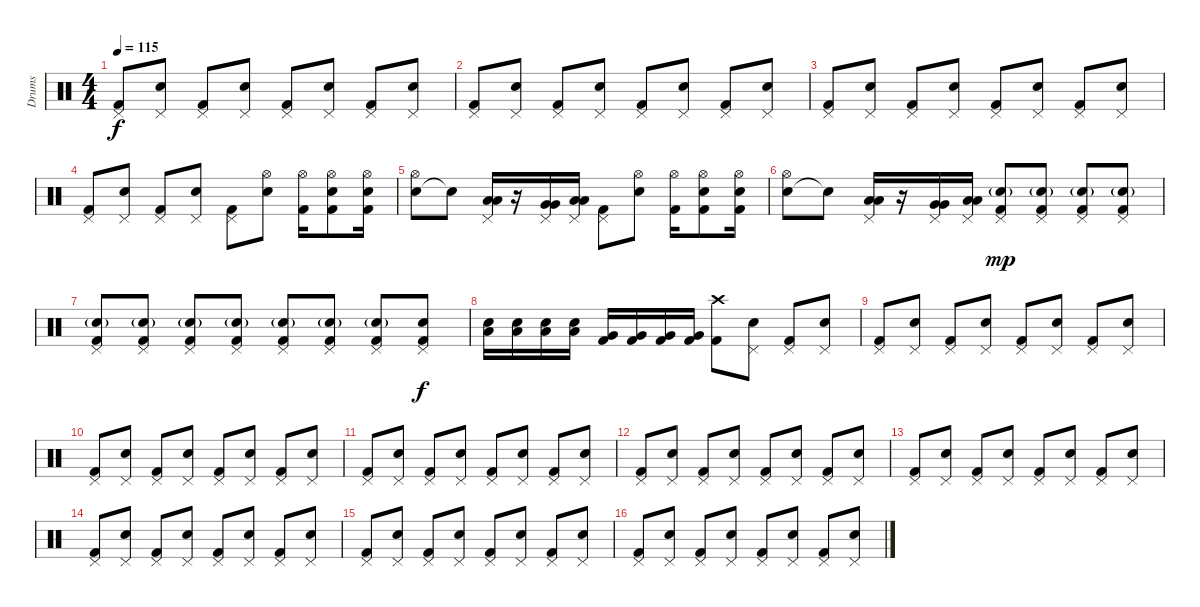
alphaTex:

\track ("Drums" "Drums") {instrument percussion}
\staff {score}
\articulation defaults
\ts (4 4)
\tempo 115
\clef neutral
\ks c
("Kick (hit) 2" "Pedal Hi-Hat (hit)").8{dy f} ("Snare (hit) 2" "Pedal Hi-Hat (hit)").8 ("Kick (hit) 2" "Pedal Hi-Hat (hit)").8 ("Snare (hit) 2" "Pedal Hi-Hat (hit)").8 ("Kick (hit) 2" "Pedal Hi-Hat (hit)").8 ("Snare (hit) 2" "Pedal Hi-Hat (hit)").8 ("Kick (hit) 2" "Pedal Hi-Hat (hit)").8 ("Snare (hit) 2" "Pedal Hi-Hat (hit)").8 |
("Kick (hit) 2" "Pedal Hi-Hat (hit)").8 ("Snare (hit) 2" "Pedal Hi-Hat (hit)").8 ("Kick (hit) 2" "Pedal Hi-Hat (hit)").8 ("Snare (hit) 2" "Pedal Hi-Hat (hit)").8 ("Kick (hit) 2" "Pedal Hi-Hat (hit)").8 ("Snare (hit) 2" "Pedal Hi-Hat (hit)").8 ("Kick (hit) 2" "Pedal Hi-Hat (hit)").8 ("Snare (hit) 2" "Pedal Hi-Hat (hit)").8 |
("Kick (hit) 2" "Pedal Hi-Hat (hit)").8 ("Snare (hit) 2" "Pedal Hi-Hat (hit)").8 ("Kick (hit) 2" "Pedal Hi-Hat (hit)").8 ("Snare (hit) 2" "Pedal Hi-Hat (hit)").8 ("Kick (hit) 2" "Pedal Hi-Hat (hit)").8 ("Snare (hit) 2" "Pedal Hi-Hat (hit)").8 ("Kick (hit) 2" "Pedal Hi-Hat (hit)").8 ("Snare (hit) 2" "Pedal Hi-Hat (hit)").8 |
("Kick (hit) 2" "Pedal Hi-Hat (hit)").8 ("Snare (hit) 2" "Pedal Hi-Hat (hit)").8 ("Kick (hit) 2" "Pedal Hi-Hat (hit)").8 ("Snare (hit) 2" "Pedal Hi-Hat (hit)").8 ("Kick (hit) 2" "Pedal Hi-Hat (hit)").8 ("Snare (hit) 2" "Hi-Hat (open)").8 ("Kick (hit) 2" "Hi-Hat (open)").16 ("Snare (hit) 2" "Kick (hit) 2" "Hi-Hat (open)").8 ("Snare (hit) 2" "Kick (hit) 2" "Hi-Hat (open)").16 |
("Snare (hit) 2" "Hi-Hat (open)").8 "Snare (hit)"{t}.8 ("Low Tom (hit)" "Low Tom (hit)" "Pedal Hi-Hat (hit)").16 r.16 ("Very Low Tom (hit)" "Very Low Tom (hit)" "Pedal Hi-Hat (hit)").16 ("Low Tom (hit)" "Low Tom (hit)" "Pedal Hi-Hat (hit)").16 ("Kick (hit) 2" "Pedal Hi-Hat (hit)").8 ("Snare (hit) 2" "Hi-Hat (open)").8 ("Kick (hit) 2" "Hi-Hat (open)").16 ("Snare (hit) 2" "Kick (hit) 2" "Hi-Hat (open)").8 ("Snare (hit) 2" "Kick (hit) 2" "Hi-Hat (open)").16 |
("Snare (hit) 2" "Hi-Hat (open)").8 "Snare (hit)"{t}.8 ("Low Tom (hit)" "Low Tom (hit)" "Pedal Hi-Hat (hit)").16 r.16 ("Very Low Tom (hit)" "Very Low Tom (hit)" "Pedal Hi-Hat (hit)").16 ("Low Tom (hit)" "Low Tom (hit)" "Pedal Hi-Hat (hit)").16 ("Kick (hit) 2" "Snare (hit) 2"{g} "Pedal Hi-Hat (hit)").8{dy mp} ("Kick (hit) 2" "Snare (hit) 2"{g} "Pedal Hi-Hat (hit)").8 ("Kick (hit) 2" "Snare (hit) 2"{g} "Pedal Hi-Hat (hit)").8 ("Kick (hit) 2" "Snare (hit) 2"{g} "Pedal Hi-Hat (hit)").8 |
("Kick (hit) 2" "Snare (hit) 2"{g} "Pedal Hi-Hat (hit)").8 ("Kick (hit) 2" "Snare (hit) 2"{g} "Pedal Hi-Hat (hit)").8 ("Kick (hit) 2" "Snare (hit) 2"{g} "Pedal Hi-Hat (hit)").8 ("Kick (hit) 2" "Snare (hit) 2"{g} "Pedal Hi-Hat (hit)").8 ("Kick (hit) 2" "Snare (hit) 2"{g} "Pedal Hi-Hat (hit)").8 ("Kick (hit) 2" "Snare (hit) 2"{g} "Pedal Hi-Hat (hit)").8 ("Kick (hit) 2" "Snare (hit) 2"{g} "Pedal Hi-Hat (hit)").8 ("Kick (hit) 2" "Snare (hit) 2" "Pedal Hi-Hat (hit)").8{dy f} |
("Snare (hit) 2" "Low Tom (hit)").16 ("Snare (hit) 2" "Low Tom (hit)").16 ("Snare (hit) 2" "Low Tom (hit)").16 ("Snare (hit) 2" "Low Tom (hit)").16 ("Kick (hit) 2" "Very Low Tom (hit)").16 ("Kick (hit) 2" "Very Low Tom (hit)").16 ("Kick (hit) 2" "Very Low Tom (hit)").16 ("Kick (hit) 2" "Very Low Tom (hit)").16 ("Kick (hit) 2" "Crash high (hit)").8 ("Snare (hit) 2" "Pedal Hi-Hat (hit)").8 ("Kick (hit) 2" "Pedal Hi-Hat (hit)").8 ("Snare (hit) 2" "Pedal Hi-Hat (hit)").8 |
("Kick (hit) 2" "Pedal Hi-Hat (hit)").8 ("Snare (hit) 2" "Pedal Hi-Hat (hit)").8 ("Kick (hit) 2" "Pedal Hi-Hat (hit)").8 ("Snare (hit) 2" "Pedal Hi-Hat (hit)").8 ("Kick (hit) 2" "Pedal Hi-Hat (hit)").8 ("Snare (hit) 2" "Pedal Hi-Hat (hit)").8 ("Kick (hit) 2" "Pedal Hi-Hat (hit)").8 ("Snare (hit) 2" "Pedal Hi-Hat (hit)").8 |
("Kick (hit) 2" "Pedal Hi-Hat (hit)").8 ("Snare (hit) 2" "Pedal Hi-Hat (hit)").8 ("Kick (hit) 2" "Pedal Hi-Hat (hit)").8 ("Snare (hit) 2" "Pedal Hi-Hat (hit)").8 ("Kick (hit) 2" "Pedal Hi-Hat (hit)").8 ("Snare (hit) 2" "Pedal Hi-Hat (hit)").8 ("Kick (hit) 2" "Pedal Hi-Hat (hit)").8 ("Snare (hit) 2" "Pedal Hi-Hat (hit)").8 |
("Kick (hit) 2" "Pedal Hi-Hat (hit)").8 ("Snare (hit) 2" "Pedal Hi-Hat (hit)").8 ("Kick (hit) 2" "Pedal Hi-Hat (hit)").8 ("Snare (hit) 2" "Pedal Hi-Hat (hit)").8 ("Kick (hit) 2" "Pedal Hi-Hat (hit)").8 ("Snare (hit) 2" "Pedal Hi-Hat (hit)").8 ("Kick (hit) 2" "Pedal Hi-Hat (hit)").8 ("Snare (hit) 2" "Pedal Hi-Hat (hit)").8 |
("Kick (hit) 2" "Pedal Hi-Hat (hit)").8 ("Snare (hit) 2" "Pedal Hi-Hat (hit)").8 ("Kick (hit) 2" "Pedal Hi-Hat (hit)").8 ("Snare (hit) 2" "Pedal Hi-Hat (hit)").8 ("Kick (hit) 2" "Pedal Hi-Hat (hit)").8 ("Snare (hit) 2" "Pedal Hi-Hat (hit)").8 ("Kick (hit) 2" "Pedal Hi-Hat (hit)").8 ("Snare (hit) 2" "Pedal Hi-Hat (hit)").8 |
("Kick (hit) 2" "Pedal Hi-Hat (hit)").8 ("Snare (hit) 2" "Pedal Hi-Hat (hit)").8 ("Kick (hit) 2" "Pedal Hi-Hat (hit)").8 ("Snare (hit) 2" "Pedal Hi-Hat (hit)").8 ("Kick (hit) 2" "Pedal Hi-Hat (hit)").8 ("Snare (hit) 2" "Pedal Hi-Hat (hit)").8 ("Kick (hit) 2" "Pedal Hi-Hat (hit)").8 ("Snare (hit) 2" "Pedal Hi-Hat (hit)").8 |
("Kick (hit) 2" "Pedal Hi-Hat (hit)").8 ("Snare (hit) 2" "Pedal Hi-Hat (hit)").8 ("Kick (hit) 2" "Pedal Hi-Hat (hit)").8 ("Snare (hit) 2" "Pedal Hi-Hat (hit)").8 ("Kick (hit) 2" "Pedal Hi-Hat (hit)").8 ("Snare (hit) 2" "Pedal Hi-Hat (hit)").8 ("Kick (hit) 2" "Pedal Hi-Hat (hit)").8 ("Snare (hit) 2" "Pedal Hi-Hat (hit)").8 |
("Kick (hit) 2" "Pedal Hi-Hat (hit)").8 ("Snare (hit) 2" "Pedal Hi-Hat (hit)").8 ("Kick (hit) 2" "Pedal Hi-Hat (hit)").8 ("Snare (hit) 2" "Pedal Hi-Hat (hit)").8 ("Kick (hit) 2" "Pedal Hi-Hat (hit)").8 ("Snare (hit) 2" "Pedal Hi-Hat (hit)").8 ("Kick (hit) 2" "Pedal Hi-Hat (hit)").8 ("Snare (hit) 2" "Pedal Hi-Hat (hit)").8 |
("Kick (hit) 2" "Pedal Hi-Hat (hit)").8 ("Snare (hit) 2" "Pedal Hi-Hat (hit)").8 ("Kick (hit) 2" "Pedal Hi-Hat (hit)").8 ("Snare (hit) 2" "Pedal Hi-Hat (hit)").8 ("Kick (hit) 2" "Pedal Hi-Hat (hit)").8 ("Snare (hit) 2" "Pedal Hi-Hat (hit)").8 ("Kick (hit) 2" "Pedal Hi-Hat (hit)").8 ("Snare (hit) 2" "Pedal Hi-Hat (hit)").8
